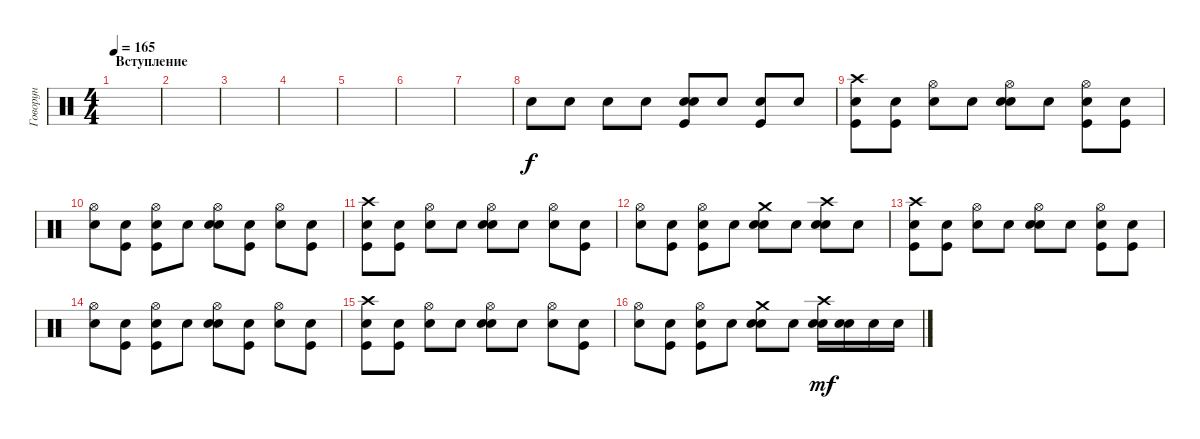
\track ("Говорун" "Говорун") {instrument percussion}
\staff {score}
\articulation defaults
\ts (4 4)
\section ("" "Вступление")
\tempo 165
\clef neutral
\ks c
|
|
|
|
|
|
|
"Snare (hit)"{x}.8 "Snare (hit)"{x}.8 "Snare (hit)"{x}.8 "Snare (hit)"{x}.8 ("Electric Snare (hit)" "Kick (hit)" "Snare (hit)"{x}).8 "Snare (hit)"{x}.8 ("Kick (hit)" "Snare (hit)"{x}).8 "Snare (hit)"{x}.8 |
("Crash high (hit)" "Kick (hit)" "Snare (hit)"{x}).8 ("Kick (hit)" "Snare (hit)"{x}).8 ("Hi-Hat (open)" "Snare (hit)"{x}).8 "Snare (hit)"{x}.8 ("Hi-Hat (open)" "Snare (hit) 2" "Snare (hit)"{x}).8 "Snare (hit)"{x}.8 ("Hi-Hat (open)" "Kick (hit)" "Snare (hit)"{x}).8 ("Kick (hit)" "Snare (hit)"{x}).8 |
("Hi-Hat (open)" "Snare (hit)"{x}).8 ("Kick (hit)" "Snare (hit)"{x}).8 ("Hi-Hat (open)" "Kick (hit)" "Snare (hit)"{x}).8 "Snare (hit)"{x}.8 ("Hi-Hat (open)" "Snare (hit) 2" "Snare (hit)"{x}).8 ("Kick (hit)" "Snare (hit)"{x}).8 ("Hi-Hat (open)" "Snare (hit)"{x}).8 ("Kick (hit)" "Snare (hit)"{x}).8 |
("Crash high (hit)" "Kick (hit)" "Snare (hit)"{x}).8 ("Kick (hit)" "Snare (hit)"{x}).8 ("Hi-Hat (open)" "Snare (hit)"{x}).8 "Snare (hit)"{x}.8 ("Hi-Hat (open)" "Snare (hit) 2" "Snare (hit)"{x}).8 "Snare (hit)"{x}.8 ("Hi-Hat (open)" "Snare (hit)"{x}).8 ("Kick (hit)" "Snare (hit)"{x}).8 |
("Hi-Hat (open)" "Snare (hit)"{x}).8 ("Kick (hit)" "Snare (hit)"{x}).8 ("Hi-Hat (open)" "Kick (hit)" "Snare (hit)"{x}).8 "Snare (hit)"{x}.8 ("Crash medium (hit)" "Snare (hit) 2" "Snare (hit)"{x}).8 "Snare (hit)"{x}.8 ("Crash high (hit)" "Snare (hit) 2" "Snare (hit)"{x}).8 "Snare (hit)"{x}.8 |
("Crash high (hit)" "Kick (hit)" "Snare (hit)"{x}).8 ("Kick (hit)" "Snare (hit)"{x}).8 ("Hi-Hat (open)" "Snare (hit)"{x}).8 "Snare (hit)"{x}.8 ("Hi-Hat (open)" "Snare (hit) 2" "Snare (hit)"{x}).8 "Snare (hit)"{x}.8 ("Hi-Hat (open)" "Kick (hit)" "Snare (hit)"{x}).8 ("Kick (hit)" "Snare (hit)"{x}).8 |
("Hi-Hat (open)" "Snare (hit)"{x}).8 ("Kick (hit)" "Snare (hit)"{x}).8 ("Hi-Hat (open)" "Kick (hit)" "Snare (hit)"{x}).8 "Snare (hit)"{x}.8 ("Hi-Hat (open)" "Snare (hit) 2" "Snare (hit)"{x}).8 ("Kick (hit)" "Snare (hit)"{x}).8 ("Hi-Hat (open)" "Snare (hit)"{x}).8 ("Kick (hit)" "Snare (hit)"{x}).8 |
("Crash high (hit)" "Kick (hit)" "Snare (hit)"{x}).8 ("Kick (hit)" "Snare (hit)"{x}).8 ("Hi-Hat (open)" "Snare (hit)"{x}).8 "Snare (hit)"{x}.8 ("Hi-Hat (open)" "Snare (hit) 2" "Snare (hit)"{x}).8 "Snare (hit)"{x}.8 ("Hi-Hat (open)" "Snare (hit)"{x}).8 ("Kick (hit)" "Snare (hit)"{x}).8 |
("Hi-Hat (open)" "Snare (hit)"{x}).8 ("Kick (hit)" "Snare (hit)"{x}).8 ("Hi-Hat (open)" "Kick (hit)" "Snare (hit)"{x}).8 "Snare (hit)"{x}.8 ("Crash medium (hit)" "Snare (hit) 2" "Snare (hit)"{x}).8 "Snare (hit)"{x}.8 ("Crash high (hit)" "Snare (hit) 2" "Snare (hit)"{x}).16{dy mf} ("Snare (hit) 2" "Snare (hit)"{x}).16 "Snare (hit) 2".16 "Snare (hit) 2".16
